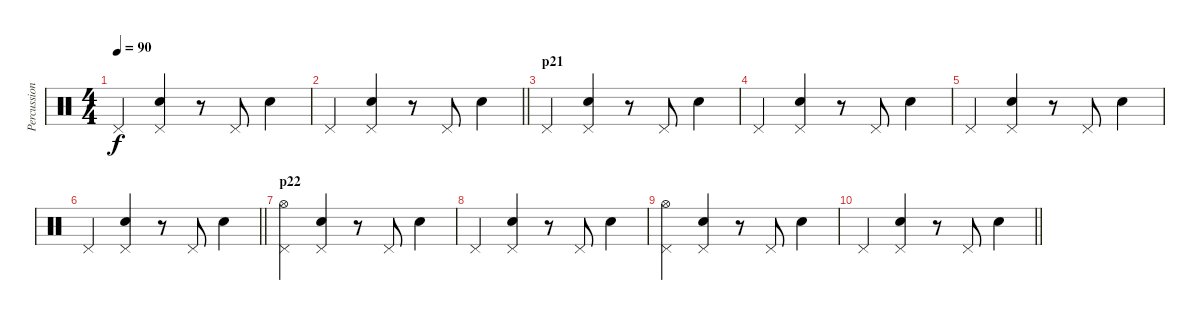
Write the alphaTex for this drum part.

\track ("Percussion" "Percussion") {instrument percussion bank 3}
\staff {score}
\articulation defaults
\ts (4 4)
\tempo 90
\clef neutral
\ks c "Pedal Hi-Hat (hit)".4{dy f}
("Pedal Hi-Hat (hit)" "Electric Snare (hit)").4 r.8 "Pedal Hi-Hat (hit)".8 "Electric Snare (hit)".4 |
\barLineRight lightlight "Pedal Hi-Hat (hit)".4
("Pedal Hi-Hat (hit)" "Electric Snare (hit)").4 r.8 "Pedal Hi-Hat (hit)".8 "Electric Snare (hit)".4 |
\section ("" "p21")
"Pedal Hi-Hat (hit)".4 ("Pedal Hi-Hat (hit)" "Electric Snare (hit)").4 r.8 "Pedal Hi-Hat (hit)".8 "Electric Snare (hit)".4 |
"Pedal Hi-Hat (hit)".4 ("Pedal Hi-Hat (hit)" "Electric Snare (hit)").4 r.8 "Pedal Hi-Hat (hit)".8 "Electric Snare (hit)".4 |
"Pedal Hi-Hat (hit)".4 ("Pedal Hi-Hat (hit)" "Electric Snare (hit)").4 r.8 "Pedal Hi-Hat (hit)".8 "Electric Snare (hit)".4 |
\barLineRight lightlight "Pedal Hi-Hat (hit)".4
("Pedal Hi-Hat (hit)" "Electric Snare (hit)").4 r.8 "Pedal Hi-Hat (hit)".8 "Electric Snare (hit)".4 |
\section ("" "p22")
("Pedal Hi-Hat (hit)" "Hi-Hat (open)").4 ("Pedal Hi-Hat (hit)" "Electric Snare (hit)").4 r.8 "Pedal Hi-Hat (hit)".8 "Electric Snare (hit)".4 |
"Pedal Hi-Hat (hit)".4 ("Pedal Hi-Hat (hit)" "Electric Snare (hit)").4 r.8 "Pedal Hi-Hat (hit)".8 "Electric Snare (hit)".4 |
("Pedal Hi-Hat (hit)" "Hi-Hat (open)").4 ("Pedal Hi-Hat (hit)" "Electric Snare (hit)").4 r.8 "Pedal Hi-Hat (hit)".8 "Electric Snare (hit)".4 |
\barLineRight lightlight "Pedal Hi-Hat (hit)".4
("Pedal Hi-Hat (hit)" "Electric Snare (hit)").4 r.8 "Pedal Hi-Hat (hit)".8 "Electric Snare (hit)".4
